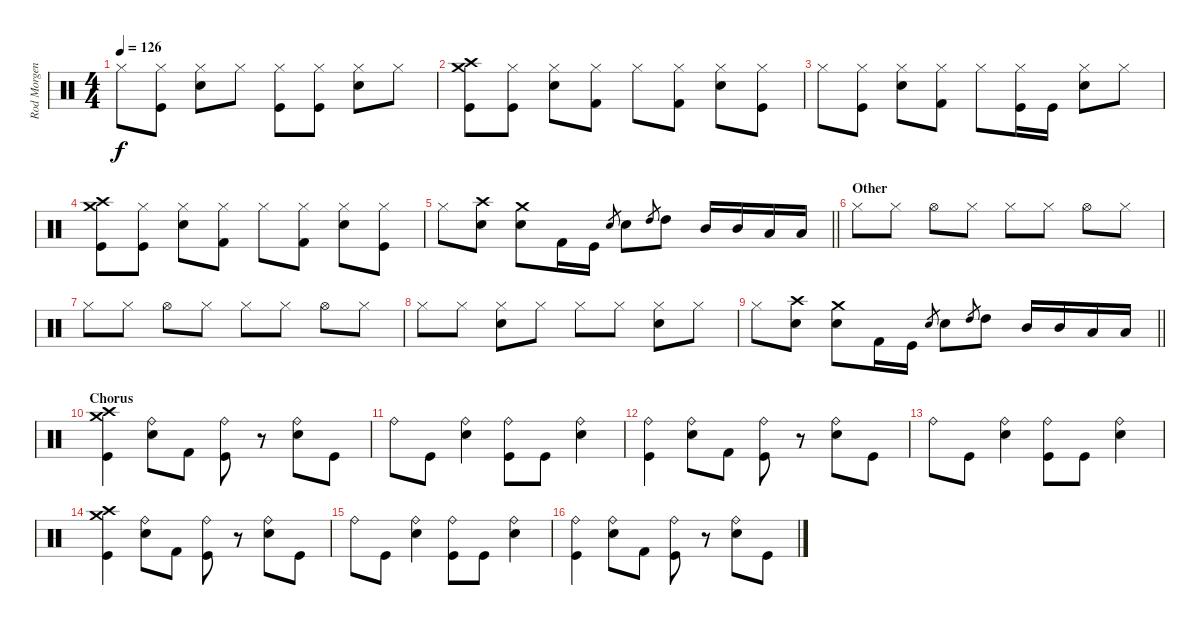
\track ("Rod Morgenstein" "Rod Morgen") {instrument percussion}
\staff {score}
\articulation defaults
\ts (4 4)
\tempo 126
\clef neutral
\ks c "Hi-Hat (closed)".8{dy f}
("Hi-Hat (closed)" "Kick (hit)").8 ("Hi-Hat (closed)" "Snare (hit) 2").8 "Hi-Hat (closed)".8 ("Hi-Hat (closed)" "Kick (hit)").8 ("Hi-Hat (closed)" "Kick (hit)").8 ("Hi-Hat (closed)" "Snare (hit) 2").8 "Hi-Hat (closed)".8 |
("Kick (hit)" "Crash high (hit)" "Crash medium (hit)").8 ("Kick (hit)" "Hi-Hat (closed)").8 ("Snare (hit) 2" "Hi-Hat (closed)").8 ("Kick (hit) 2" "Hi-Hat (closed)").8 "Hi-Hat (closed)".8 ("Kick (hit) 2" "Hi-Hat (closed)").8 ("Snare (hit) 2" "Hi-Hat (closed)").8 ("Kick (hit)" "Hi-Hat (closed)").8 |
"Hi-Hat (closed)".8 ("Kick (hit)" "Hi-Hat (closed)").8 ("Hi-Hat (closed)" "Snare (hit) 2").8 ("Kick (hit) 2" "Hi-Hat (closed)").8 "Hi-Hat (closed)".8 ("Kick (hit)" "Hi-Hat (closed)").16 "Kick (hit)".16 ("Hi-Hat (closed)" "Snare (hit) 2").8 "Hi-Hat (closed)".8 |
("Kick (hit)" "Crash high (hit)" "Crash medium (hit)").8 ("Kick (hit)" "Hi-Hat (closed)").8 ("Snare (hit) 2" "Hi-Hat (closed)").8 ("Kick (hit) 2" "Hi-Hat (closed)").8 "Hi-Hat (closed)".8 ("Kick (hit) 2" "Hi-Hat (closed)").8 ("Snare (hit) 2" "Hi-Hat (closed)").8 ("Kick (hit)" "Hi-Hat (closed)").8 |
\barLineRight lightlight "Hi-Hat (closed)".8
("Crash high (hit)" "Snare (hit) 2").8 ("Crash medium (hit)" "Snare (hit) 2").8 "Kick (hit) 2".16 "Kick (hit)".16 "Snare (hit) 2".8{gr} "Snare (hit) 2".8 "High Tom (hit)".8{gr} "High Tom (hit)".8 "Mid Tom (hit)".16 "Mid Tom (hit)".16 "Low Tom (hit)".16 "Low Tom (hit)".16 |
\section ("" "Other")
"Hi-Hat (closed)".8 "Hi-Hat (closed)".8 "Hi-Hat (open)".8 "Hi-Hat (closed)".8 "Hi-Hat (closed)".8 "Hi-Hat (closed)".8 "Hi-Hat (open)".8 "Hi-Hat (closed)".8 |
"Hi-Hat (closed)".8 "Hi-Hat (closed)".8 "Hi-Hat (open)".8 "Hi-Hat (closed)".8 "Hi-Hat (closed)".8 "Hi-Hat (closed)".8 "Hi-Hat (open)".8 "Hi-Hat (closed)".8 |
"Hi-Hat (closed)".8 "Hi-Hat (closed)".8 ("Hi-Hat (closed)" "Snare (hit) 2").8 "Hi-Hat (closed)".8 "Hi-Hat (closed)".8 "Hi-Hat (closed)".8 ("Hi-Hat (closed)" "Snare (hit) 2").8 "Hi-Hat (closed)".8 |
\barLineRight lightlight "Hi-Hat (closed)".8
("Crash high (hit)" "Snare (hit) 2").8 ("Crash medium (hit)" "Snare (hit) 2").8 "Kick (hit) 2".16 "Kick (hit)".16 "Snare (hit) 2".8{gr} "Snare (hit) 2".8 "High Tom (hit)".8{gr} "High Tom (hit)".8 "Mid Tom (hit)".16 "Mid Tom (hit)".16 "Low Tom (hit)".16 "Low Tom (hit)".16 |
\section ("" "Chorus")
("Crash high (hit)" "Crash medium (hit)" "Kick (hit)").4 ("Snare (hit) 2" "Ride (bell)").8 "Kick (hit) 2".8 ("Ride (bell)" "Kick (hit)").8 r.8 ("Ride (bell)" "Snare (hit) 2").8 "Kick (hit)".8 |
"Ride (bell)".8 "Kick (hit)".8 ("Snare (hit) 2" "Ride (bell)").4 ("Ride (bell)" "Kick (hit)").8 "Kick (hit)".8 ("Ride (bell)" "Snare (hit) 2").4 |
("Ride (bell)" "Kick (hit)").4 ("Snare (hit) 2" "Ride (bell)").8 "Kick (hit) 2".8 ("Ride (bell)" "Kick (hit)").8 r.8 ("Ride (bell)" "Snare (hit) 2").8 "Kick (hit)".8 |
"Ride (bell)".8 "Kick (hit)".8 ("Snare (hit) 2" "Ride (bell)").4 ("Ride (bell)" "Kick (hit)").8 "Kick (hit)".8 ("Ride (bell)" "Snare (hit) 2").4 |
("Crash high (hit)" "Crash medium (hit)" "Kick (hit)").4 ("Snare (hit) 2" "Ride (bell)").8 "Kick (hit) 2".8 ("Ride (bell)" "Kick (hit)").8 r.8 ("Ride (bell)" "Snare (hit) 2").8 "Kick (hit)".8 |
"Ride (bell)".8 "Kick (hit)".8 ("Snare (hit) 2" "Ride (bell)").4 ("Ride (bell)" "Kick (hit)").8 "Kick (hit)".8 ("Ride (bell)" "Snare (hit) 2").4 |
("Ride (bell)" "Kick (hit)").4 ("Snare (hit) 2" "Ride (bell)").8 "Kick (hit) 2".8 ("Ride (bell)" "Kick (hit)").8 r.8 ("Ride (bell)" "Snare (hit) 2").8 "Kick (hit)".8
